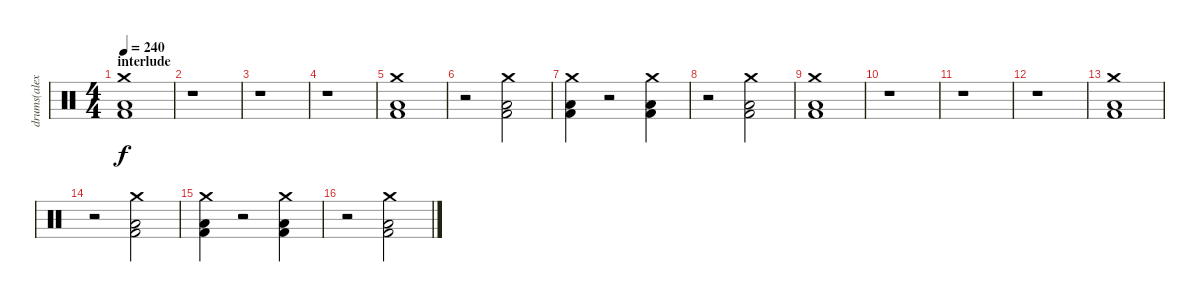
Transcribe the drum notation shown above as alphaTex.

\track ("drums(alex holzshwart)" "drums(alex") {instrument percussion}
\staff {score}
\articulation defaults
\ts (4 4)
\section ("" "interlude")
\tempo 240
\clef neutral
\ks c
("Crash medium (hit)" "Low Floor Tom (hit)" "Kick (hit) 2").1{dy f} |
r.1 |
r.1 |
r.1 |
("Crash medium (hit)" "Low Floor Tom (hit)" "Kick (hit) 2").1 |
r.2 ("Crash medium (hit)" "Low Floor Tom (hit)" "Kick (hit) 2").2 |
("Crash medium (hit)" "Low Floor Tom (hit)" "Kick (hit) 2").4 r.2 ("Crash medium (hit)" "Low Floor Tom (hit)" "Kick (hit) 2").4 |
r.2 ("Crash medium (hit)" "Low Floor Tom (hit)" "Kick (hit) 2").2 |
("Crash medium (hit)" "Low Floor Tom (hit)" "Kick (hit) 2").1 |
r.1 |
r.1 |
r.1 |
("Crash medium (hit)" "Low Floor Tom (hit)" "Kick (hit) 2").1 |
r.2 ("Crash medium (hit)" "Low Floor Tom (hit)" "Kick (hit) 2").2 |
("Crash medium (hit)" "Low Floor Tom (hit)" "Kick (hit) 2").4 r.2 ("Crash medium (hit)" "Low Floor Tom (hit)" "Kick (hit) 2").4 |
r.2 ("Crash medium (hit)" "Low Floor Tom (hit)" "Kick (hit) 2").2
